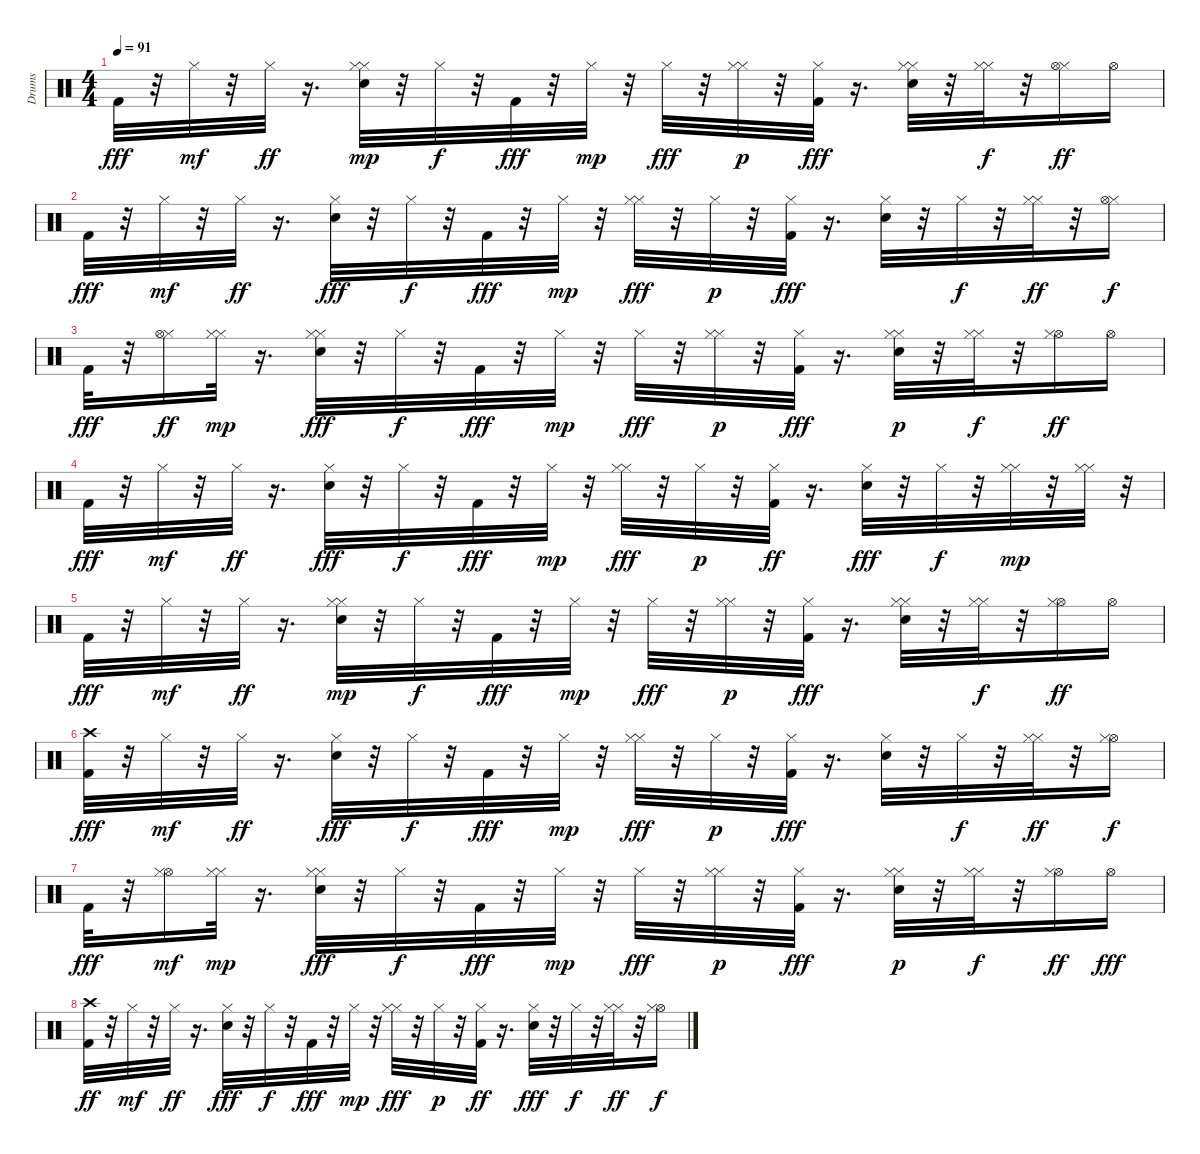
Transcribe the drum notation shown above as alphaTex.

\track ("Drums" "Drums") {instrument percussion}
\staff {score}
\articulation defaults
\ts (4 4)
\tempo 91
\clef neutral
\ks c "Kick (hit) 2".32{dy fff}
r.32 "Hi-Hat (closed)".32{dy mf} r.32 "Hi-Hat (closed)".32{dy ff} r.16{d} ("Hi-Hat (closed)" "Snare (hit) 2" "Hi-Hat (closed)").32{dy mp} r.32 "Hi-Hat (closed)".32{dy f} r.32 "Kick (hit) 2".32{dy fff} r.32 "Hi-Hat (closed)".32{dy mp} r.32 "Hi-Hat (closed)".32{dy fff} r.32 ("Hi-Hat (closed)" "Hi-Hat (closed)").32{dy p} r.32 ("Hi-Hat (closed)" "Kick (hit) 2").32{dy fff} r.16{d} ("Hi-Hat (closed)" "Hi-Hat (closed)" "Snare (hit) 2").32 r.32 ("Hi-Hat (closed)" "Hi-Hat (closed)").32{dy f} r.32 ("Hi-Hat (closed)" "Hi-Hat (open)").16{dy ff} "Hi-Hat (open)".16 |
"Kick (hit) 2".32{dy fff} r.32 "Hi-Hat (closed)".32{dy mf} r.32 "Hi-Hat (closed)".32{dy ff} r.16{d} ("Hi-Hat (closed)" "Snare (hit) 2").32{dy fff} r.32 "Hi-Hat (closed)".32{dy f} r.32 "Kick (hit) 2".32{dy fff} r.32 "Hi-Hat (closed)".32{dy mp} r.32 ("Hi-Hat (closed)" "Hi-Hat (closed)").32{dy fff} r.32 "Hi-Hat (closed)".32{dy p} r.32 ("Hi-Hat (closed)" "Kick (hit) 2").32{dy fff} r.16{d} ("Snare (hit) 2" "Hi-Hat (closed)").32 r.32 "Hi-Hat (closed)".32{dy f} r.32 ("Hi-Hat (closed)" "Hi-Hat (closed)").32{dy ff} r.32 ("Hi-Hat (closed)" "Hi-Hat (open)").16{dy f} |
"Kick (hit) 2".32{dy fff} r.32 ("Hi-Hat (closed)" "Hi-Hat (open)").16{dy ff} ("Hi-Hat (closed)" "Hi-Hat (closed)").32{dy mp} r.16{d} ("Hi-Hat (closed)" "Snare (hit) 2" "Hi-Hat (closed)").32{dy fff} r.32 "Hi-Hat (closed)".32{dy f} r.32 "Kick (hit) 2".32{dy fff} r.32 "Hi-Hat (closed)".32{dy mp} r.32 "Hi-Hat (closed)".32{dy fff} r.32 ("Hi-Hat (closed)" "Hi-Hat (closed)").32{dy p} r.32 ("Hi-Hat (closed)" "Kick (hit) 2").32{dy fff} r.16{d} ("Snare (hit) 2" "Hi-Hat (closed)" "Hi-Hat (closed)").32{dy p} r.32 ("Hi-Hat (closed)" "Hi-Hat (closed)").32{dy f} r.32 ("Hi-Hat (open)" "Hi-Hat (closed)").16{dy ff} "Hi-Hat (open)".16 |
"Kick (hit) 2".32{dy fff} r.32 "Hi-Hat (closed)".32{dy mf} r.32 "Hi-Hat (closed)".32{dy ff} r.16{d} ("Hi-Hat (closed)" "Snare (hit) 2").32{dy fff} r.32 "Hi-Hat (closed)".32{dy f} r.32 "Kick (hit) 2".32{dy fff} r.32 "Hi-Hat (closed)".32{dy mp} r.32 ("Hi-Hat (closed)" "Hi-Hat (closed)").32{dy fff} r.32 "Hi-Hat (closed)".32{dy p} r.32 ("Kick (hit) 2" "Hi-Hat (closed)").32{dy ff} r.16{d} ("Snare (hit) 2" "Hi-Hat (closed)").32{dy fff} r.32 "Hi-Hat (closed)".32{dy f} r.32 ("Hi-Hat (closed)" "Hi-Hat (closed)").32{dy mp} r.32 ("Hi-Hat (closed)" "Hi-Hat (closed)").32 r.32 |
"Kick (hit) 2".32{dy fff} r.32 "Hi-Hat (closed)".32{dy mf} r.32 "Hi-Hat (closed)".32{dy ff} r.16{d} ("Snare (hit) 2" "Hi-Hat (closed)" "Hi-Hat (closed)").32{dy mp} r.32 "Hi-Hat (closed)".32{dy f} r.32 "Kick (hit) 2".32{dy fff} r.32 "Hi-Hat (closed)".32{dy mp} r.32 "Hi-Hat (closed)".32{dy fff} r.32 ("Hi-Hat (closed)" "Hi-Hat (closed)").32{dy p} r.32 ("Hi-Hat (closed)" "Kick (hit) 2").32{dy fff} r.16{d} ("Hi-Hat (closed)" "Hi-Hat (closed)" "Snare (hit) 2").32 r.32 ("Hi-Hat (closed)" "Hi-Hat (closed)").32{dy f} r.32 ("Hi-Hat (open)" "Hi-Hat (closed)").16{dy ff} "Hi-Hat (open)".16 |
("Crash high (hit)" "Kick (hit) 2").32{dy fff} r.32 "Hi-Hat (closed)".32{dy mf} r.32 "Hi-Hat (closed)".32{dy ff} r.16{d} ("Snare (hit) 2" "Hi-Hat (closed)").32{dy fff} r.32 "Hi-Hat (closed)".32{dy f} r.32 "Kick (hit) 2".32{dy fff} r.32 "Hi-Hat (closed)".32{dy mp} r.32 ("Hi-Hat (closed)" "Hi-Hat (closed)").32{dy fff} r.32 "Hi-Hat (closed)".32{dy p} r.32 ("Hi-Hat (closed)" "Kick (hit) 2").32{dy fff} r.16{d} ("Hi-Hat (closed)" "Snare (hit) 2").32 r.32 "Hi-Hat (closed)".32{dy f} r.32 ("Hi-Hat (closed)" "Hi-Hat (closed)").32{dy ff} r.32 ("Hi-Hat (open)" "Hi-Hat (closed)").16{dy f} |
"Kick (hit) 2".32{dy fff} r.32 ("Hi-Hat (open)" "Hi-Hat (closed)").16{dy mf} ("Hi-Hat (closed)" "Hi-Hat (closed)").32{dy mp} r.16{d} ("Snare (hit) 2" "Hi-Hat (closed)" "Hi-Hat (closed)").32{dy fff} r.32 "Hi-Hat (closed)".32{dy f} r.32 "Kick (hit) 2".32{dy fff} r.32 "Hi-Hat (closed)".32{dy mp} r.32 "Hi-Hat (closed)".32{dy fff} r.32 ("Hi-Hat (closed)" "Hi-Hat (closed)").32{dy p} r.32 ("Hi-Hat (closed)" "Kick (hit) 2").32{dy fff} r.16{d} ("Hi-Hat (closed)" "Snare (hit) 2" "Hi-Hat (closed)").32{dy p} r.32 ("Hi-Hat (closed)" "Hi-Hat (closed)").32{dy f} r.32 ("Hi-Hat (open)" "Hi-Hat (closed)").16{dy ff} "Hi-Hat (open)".16{dy fff} |
("Kick (hit) 2" "Crash high (hit)").32{dy ff} r.32 "Hi-Hat (closed)".32{dy mf} r.32 "Hi-Hat (closed)".32{dy ff} r.16{d} ("Hi-Hat (closed)" "Snare (hit) 2").32{dy fff} r.32 "Hi-Hat (closed)".32{dy f} r.32 "Kick (hit) 2".32{dy fff} r.32 "Hi-Hat (closed)".32{dy mp} r.32 ("Hi-Hat (closed)" "Hi-Hat (closed)").32{dy fff} r.32 "Hi-Hat (closed)".32{dy p} r.32 ("Kick (hit) 2" "Hi-Hat (closed)").32{dy ff} r.16{d} ("Hi-Hat (closed)" "Snare (hit) 2").32{dy fff} r.32 "Hi-Hat (closed)".32{dy f} r.32 ("Hi-Hat (closed)" "Hi-Hat (closed)").32{dy ff} r.32 ("Hi-Hat (open)" "Hi-Hat (closed)").16{dy f}
